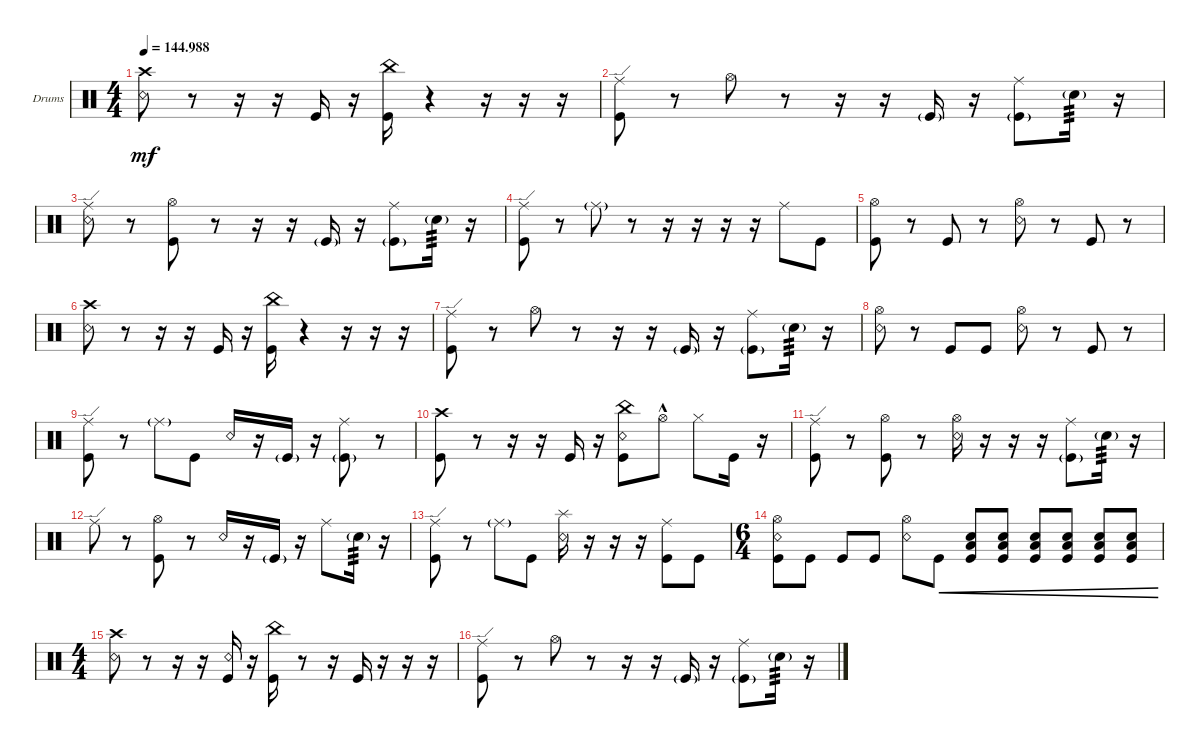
\defaultSystemsLayout 4
\bracketExtendMode groupsimilarinstruments
\firstSystemTrackNameOrientation horizontal
\otherSystemsTrackNameOrientation horizontal
\track ("Drumkit" "Drums") {instrument percussion}
\staff {score}
\articulation defaults
\ts (4 4)
\tempo
144.988
\accidentals auto
\clef neutral
\ottava regular
\simile none
\ks c
("Snare (rim shot)" "Crash high (hit)").8{dy mf} r.8 r.16 r.16 "Kick (hit)".16 r.16 ("Kick (hit)" "China (hit)").16 r.4 r.16 r.16 r.16 |
("Kick (hit)" "Ride (edge)").8 r.8 "Hi-Hat (open)".8 r.8 r.16 r.16 "Kick (hit)"{g}.16 r.16 ("Ride (middle)" "Kick (hit)"{g}).8 "Snare (hit) 2"{g}.16{tp 3} r.16 |
("Ride (edge)" "Snare (rim shot)").8 r.8 ("Hi-Hat (open)" "Kick (hit)").8 r.8 r.16 r.16 "Kick (hit)"{g}.16 r.16 ("Ride (middle)" "Kick (hit)"{g}).8 "Snare (hit) 2"{g}.16{tp 3} r.16 |
("Kick (hit)" "Ride (edge)").8 r.8 "Ride (middle)"{g}.8 r.8 r.16 r.16 r.16 r.16 "Ride (middle)".8 "Kick (hit)".8 |
("Kick (hit)" "Hi-Hat (open)").8 r.8 "Kick (hit)".8 r.8 ("Snare (rim shot)" "Hi-Hat (open)").8 r.8 "Kick (hit)".8 r.8 |
("Snare (rim shot)" "Crash high (hit)").8 r.8 r.16 r.16 "Kick (hit)".16 r.16 ("Kick (hit)" "China (hit)").16 r.4 r.16 r.16 r.16 |
("Kick (hit)" "Ride (edge)").8 r.8 "Hi-Hat (open)".8 r.8 r.16 r.16 "Kick (hit)"{g}.16 r.16 ("Ride (middle)" "Kick (hit)"{g}).8 "Snare (hit) 2"{g}.16{tp 3} r.16 |
("Snare (rim shot)" "Hi-Hat (open)").8 r.8 "Kick (hit)".8 "Kick (hit)".8 ("Snare (rim shot)" "Hi-Hat (open)").8 r.8 "Kick (hit)".8 r.8 |
("Kick (hit)" "Ride (edge)").8 r.8 "Ride (middle)"{g}.8 "Kick (hit)".8 "Snare (rim shot)".16 r.16 "Kick (hit)"{g}.16 r.16 ("Ride (middle)" "Kick (hit)"{g}).8 r.8 |
("Crash high (hit)" "Kick (hit)").8 r.8 r.16 r.16 "Kick (hit)".16 r.16 ("Kick (hit)" "China (hit)" "Snare (rim shot)").8 "Hi-Hat (open)"{hac}.8 "Hi-Hat (closed)".8 "Kick (hit)".16 r.16 |
("Kick (hit)" "Ride (edge)").8 r.8 ("Hi-Hat (open)" "Kick (hit)").8 r.8 ("Snare (rim shot)" "Hi-Hat (open)").16 r.16 r.16 r.16 ("Ride (middle)" "Kick (hit)"{g}).8 "Snare (hit) 2"{g}.16{tp 3} r.16 |
"Ride (edge)".8 r.8 ("Hi-Hat (open)" "Kick (hit)").8 r.8 "Snare (rim shot)".16 r.16 "Kick (hit)"{g}.16 r.16 "Ride (middle)".8 "Snare (hit) 2"{g}.16{tp 3} r.16 |
("Kick (hit)" "Ride (edge)").8 r.8 "Ride (middle)"{g}.8 "Kick (hit)".8 ("Snare (rim shot)" "Splash (hit)").16 r.16 r.16 r.16 ("Ride (middle)" "Kick (hit)").8 "Kick (hit)".8 |
\ts (6 4)
("Kick (hit)" "Hi-Hat (open)" "Snare (rim shot)").8 "Kick (hit)".8 "Kick (hit)".8 "Kick (hit)".8 ("Snare (rim shot)" "Hi-Hat (open)").8 "Kick (hit)".8{cre} ("Kick (hit)" "Low Tom (hit)" "Snare (hit) 2").8{cre} ("Kick (hit)" "Low Tom (hit)" "Snare (hit) 2").8{cre} ("Kick (hit)" "Low Tom (hit)" "Snare (hit) 2").8{cre} ("Kick (hit)" "Low Tom (hit)" "Snare (hit) 2").8{cre} ("Kick (hit)" "Snare (hit) 2" "Low Tom (hit)").8{cre} ("Kick (hit)" "Low Tom (hit)" "Snare (hit) 2").8{cre} |
\ts (4 4)
("Snare (rim shot)" "Crash high (hit)").8 r.8 r.16 r.16 ("Kick (hit)" "Snare (rim shot)").16 r.16 ("Kick (hit)" "China (hit)").16 r.8 r.16 "Kick (hit)".16 r.16 r.16 r.16 |
("Kick (hit)" "Ride (edge)").8 r.8 "Hi-Hat (open)".8 r.8 r.16 r.16 "Kick (hit)"{g}.16 r.16 ("Ride (middle)" "Kick (hit)"{g}).8 "Snare (hit) 2"{g}.16{tp 3} r.16
